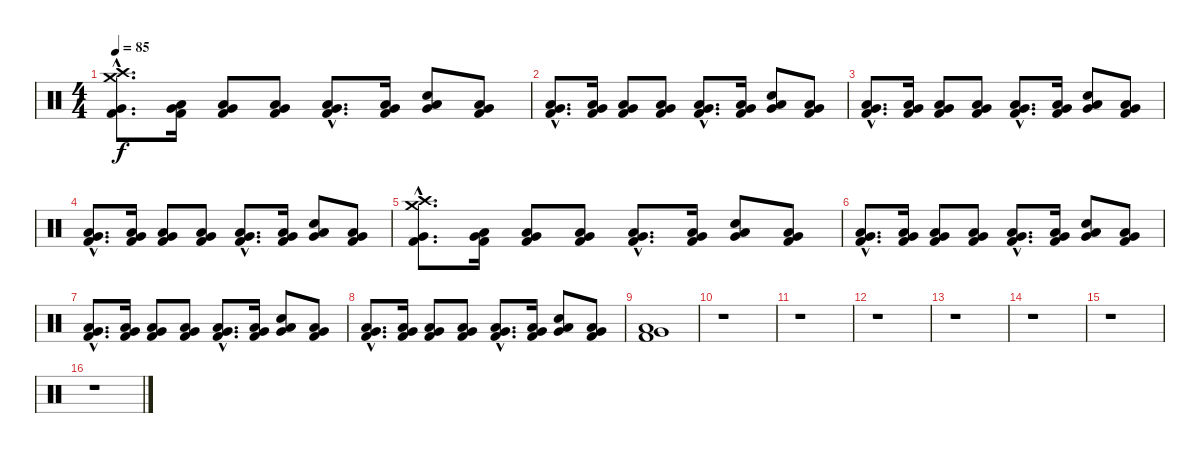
\track "" {instrument percussion}
\staff {score}
\articulation defaults
\ts (4 4)
\tempo 85
\clef neutral
\ks c
("Crash high (hit)"{hac} "Crash medium (hit)"{hac} "Very Low Tom (hit)"{hac} "Kick (hit) 2"{hac}).8{d dy f} ("Low Tom (hit)" "Very Low Tom (hit)" "Kick (hit) 2").16 ("Low Tom (hit)" "Very Low Tom (hit)" "Kick (hit) 2").8 ("Low Tom (hit)" "Very Low Tom (hit)" "Kick (hit) 2").8 ("Low Tom (hit)"{hac} "Very Low Tom (hit)"{hac} "Kick (hit) 2"{hac}).8{d} ("Low Tom (hit)" "Very Low Tom (hit)" "Kick (hit) 2").16 ("Low Tom (hit)" "Very Low Tom (hit)" "Snare (hit) 2").8 ("Low Tom (hit)" "Very Low Tom (hit)" "Kick (hit) 2").8 |
("Low Tom (hit)"{hac} "Very Low Tom (hit)"{hac} "Kick (hit) 2"{hac}).8{d} ("Low Tom (hit)" "Very Low Tom (hit)" "Kick (hit) 2").16 ("Low Tom (hit)" "Very Low Tom (hit)" "Kick (hit) 2").8 ("Low Tom (hit)" "Very Low Tom (hit)" "Kick (hit) 2").8 ("Low Tom (hit)"{hac} "Very Low Tom (hit)"{hac} "Kick (hit) 2"{hac}).8{d} ("Low Tom (hit)" "Very Low Tom (hit)" "Kick (hit) 2").16 ("Low Tom (hit)" "Very Low Tom (hit)" "Snare (hit) 2").8 ("Low Tom (hit)" "Very Low Tom (hit)" "Kick (hit) 2").8 |
("Low Tom (hit)"{hac} "Very Low Tom (hit)"{hac} "Kick (hit) 2"{hac}).8{d} ("Low Tom (hit)" "Very Low Tom (hit)" "Kick (hit) 2").16 ("Low Tom (hit)" "Very Low Tom (hit)" "Kick (hit) 2").8 ("Low Tom (hit)" "Very Low Tom (hit)" "Kick (hit) 2").8 ("Low Tom (hit)"{hac} "Very Low Tom (hit)"{hac} "Kick (hit) 2"{hac}).8{d} ("Low Tom (hit)" "Very Low Tom (hit)" "Kick (hit) 2").16 ("Low Tom (hit)" "Very Low Tom (hit)" "Snare (hit) 2").8 ("Low Tom (hit)" "Very Low Tom (hit)" "Kick (hit) 2").8 |
("Low Tom (hit)"{hac} "Very Low Tom (hit)"{hac} "Kick (hit) 2"{hac}).8{d} ("Low Tom (hit)" "Very Low Tom (hit)" "Kick (hit) 2").16 ("Low Tom (hit)" "Very Low Tom (hit)" "Kick (hit) 2").8 ("Low Tom (hit)" "Very Low Tom (hit)" "Kick (hit) 2").8 ("Low Tom (hit)"{hac} "Very Low Tom (hit)"{hac} "Kick (hit) 2"{hac}).8{d} ("Low Tom (hit)" "Very Low Tom (hit)" "Kick (hit) 2").16 ("Low Tom (hit)" "Very Low Tom (hit)" "Snare (hit) 2").8 ("Low Tom (hit)" "Very Low Tom (hit)" "Kick (hit) 2").8 |
("Crash high (hit)"{hac} "Crash medium (hit)"{hac} "Very Low Tom (hit)"{hac} "Kick (hit) 2"{hac}).8{d} ("Low Tom (hit)" "Very Low Tom (hit)" "Kick (hit) 2").16 ("Low Tom (hit)" "Very Low Tom (hit)" "Kick (hit) 2").8 ("Low Tom (hit)" "Very Low Tom (hit)" "Kick (hit) 2").8 ("Low Tom (hit)"{hac} "Very Low Tom (hit)"{hac} "Kick (hit) 2"{hac}).8{d} ("Low Tom (hit)" "Very Low Tom (hit)" "Kick (hit) 2").16 ("Low Tom (hit)" "Very Low Tom (hit)" "Snare (hit) 2").8 ("Low Tom (hit)" "Very Low Tom (hit)" "Kick (hit) 2").8 |
("Low Tom (hit)"{hac} "Very Low Tom (hit)"{hac} "Kick (hit) 2"{hac}).8{d} ("Low Tom (hit)" "Very Low Tom (hit)" "Kick (hit) 2").16 ("Low Tom (hit)" "Very Low Tom (hit)" "Kick (hit) 2").8 ("Low Tom (hit)" "Very Low Tom (hit)" "Kick (hit) 2").8 ("Low Tom (hit)"{hac} "Very Low Tom (hit)"{hac} "Kick (hit) 2"{hac}).8{d} ("Low Tom (hit)" "Very Low Tom (hit)" "Kick (hit) 2").16 ("Low Tom (hit)" "Very Low Tom (hit)" "Snare (hit) 2").8 ("Low Tom (hit)" "Very Low Tom (hit)" "Kick (hit) 2").8 |
("Low Tom (hit)"{hac} "Very Low Tom (hit)"{hac} "Kick (hit) 2"{hac}).8{d} ("Low Tom (hit)" "Very Low Tom (hit)" "Kick (hit) 2").16 ("Low Tom (hit)" "Very Low Tom (hit)" "Kick (hit) 2").8 ("Low Tom (hit)" "Very Low Tom (hit)" "Kick (hit) 2").8 ("Low Tom (hit)"{hac} "Very Low Tom (hit)"{hac} "Kick (hit) 2"{hac}).8{d} ("Low Tom (hit)" "Very Low Tom (hit)" "Kick (hit) 2").16 ("Low Tom (hit)" "Very Low Tom (hit)" "Snare (hit) 2").8 ("Low Tom (hit)" "Very Low Tom (hit)" "Kick (hit) 2").8 |
("Low Tom (hit)"{hac} "Very Low Tom (hit)"{hac} "Kick (hit) 2"{hac}).8{d} ("Low Tom (hit)" "Very Low Tom (hit)" "Kick (hit) 2").16 ("Low Tom (hit)" "Very Low Tom (hit)" "Kick (hit) 2").8 ("Low Tom (hit)" "Very Low Tom (hit)" "Kick (hit) 2").8 ("Low Tom (hit)"{hac} "Very Low Tom (hit)"{hac} "Kick (hit) 2"{hac}).8{d} ("Low Tom (hit)" "Very Low Tom (hit)" "Kick (hit) 2").16 ("Low Tom (hit)" "Very Low Tom (hit)" "Snare (hit) 2").8 ("Low Tom (hit)" "Very Low Tom (hit)" "Kick (hit) 2").8 |
("Low Tom (hit)" "Very Low Tom (hit)" "Kick (hit) 2").1 |
r.1 |
r.1 |
r.1 |
r.1 |
r.1 |
r.1 |
r.1
